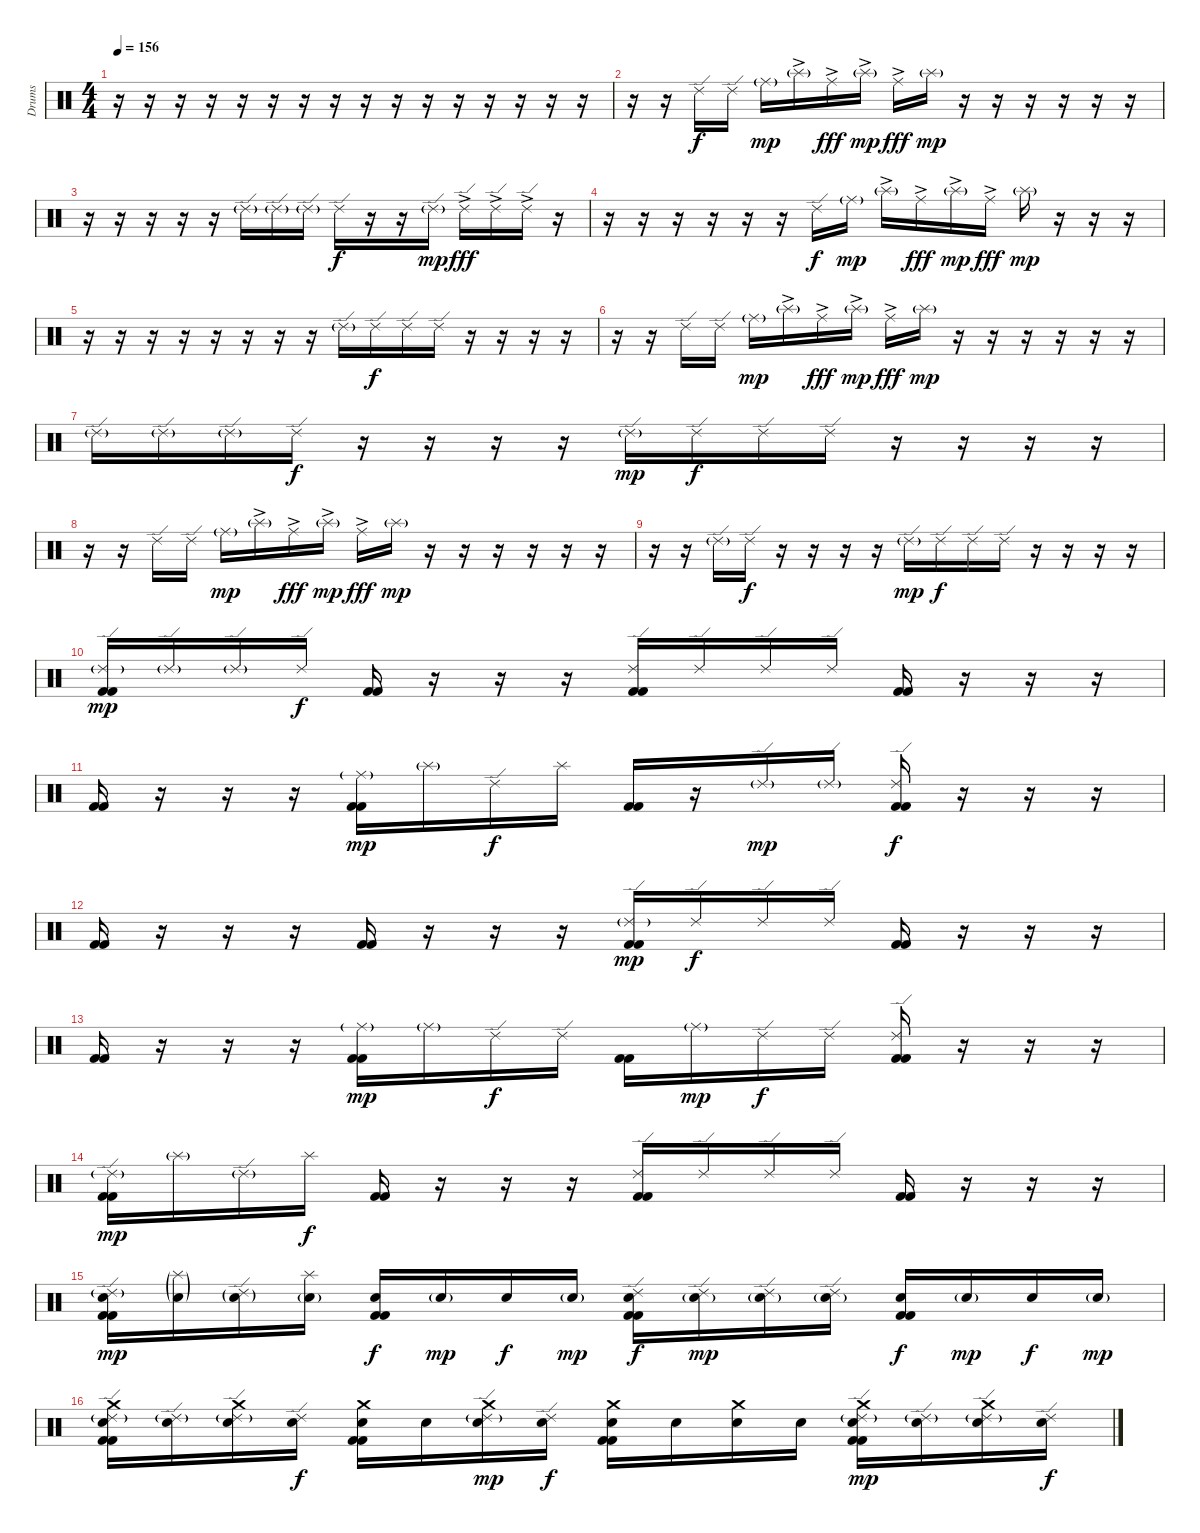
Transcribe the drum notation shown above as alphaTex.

\track ("Drums" "Drums") {instrument percussion}
\staff {score}
\articulation defaults
\ts (4 4)
\tempo 156
\clef neutral
\ks c
r.16{dy f} r.16 r.16 r.16 r.16 r.16 r.16 r.16 r.16 r.16 r.16 r.16 r.16 r.16 r.16 r.16 |
r.16 r.16 "Ride (edge) 2".16 "Ride (edge) 2".16 "Ride (middle)"{g}.16{dy mp} "Splash (hit)"{g ac}.16 "Ride (middle)"{ac}.16{dy fff} "Splash (hit)"{g ac}.16{dy mp} "Ride (middle)"{ac}.16{dy fff} "Splash (hit)"{g}.16{dy mp} r.16 r.16 r.16 r.16 r.16 r.16 |
r.16 r.16 r.16 r.16 r.16 "Ride (edge) 2"{g}.16 "Ride (edge) 2"{g}.16 "Ride (edge) 2"{g}.16 "Ride (edge) 2".16{dy f} r.16 r.16 "Ride (edge) 2"{g}.16{dy mp} "Ride (edge) 2"{ac}.16{dy fff} "Ride (edge) 2"{ac}.16 "Ride (edge) 2"{ac}.16 r.16 |
r.16 r.16 r.16 r.16 r.16 r.16 "Ride (edge) 2".16{dy f} "Ride (middle)"{g}.16{dy mp} "Splash (hit)"{g ac}.16 "Ride (middle)"{ac}.16{dy fff} "Splash (hit)"{g ac}.16{dy mp} "Ride (middle)"{ac}.16{dy fff} "Splash (hit)"{g}.16{dy mp} r.16 r.16 r.16 |
r.16 r.16 r.16 r.16 r.16 r.16 r.16 r.16 "Ride (edge) 2"{g}.16 "Ride (edge) 2".16{dy f} "Ride (edge) 2".16 "Ride (edge) 2".16 r.16 r.16 r.16 r.16 |
r.16 r.16 "Ride (edge) 2".16 "Ride (edge) 2".16 "Ride (middle)"{g}.16{dy mp} "Splash (hit)"{g ac}.16 "Ride (middle)"{ac}.16{dy fff} "Splash (hit)"{g ac}.16{dy mp} "Ride (middle)"{ac}.16{dy fff} "Splash (hit)"{g}.16{dy mp} r.16 r.16 r.16 r.16 r.16 r.16 |
"Ride (edge) 2"{g}.16 "Ride (edge) 2"{g}.16 "Ride (edge) 2"{g}.16 "Ride (edge) 2".16{dy f} r.16 r.16 r.16 r.16 "Ride (edge) 2"{g}.16{dy mp} "Ride (edge) 2".16{dy f} "Ride (edge) 2".16 "Ride (edge) 2".16 r.16 r.16 r.16 r.16 |
r.16 r.16 "Ride (edge) 2".16 "Ride (edge) 2".16 "Ride (middle)"{g}.16{dy mp} "Splash (hit)"{g ac}.16 "Ride (middle)"{ac}.16{dy fff} "Splash (hit)"{g ac}.16{dy mp} "Ride (middle)"{ac}.16{dy fff} "Splash (hit)"{g}.16{dy mp} r.16 r.16 r.16 r.16 r.16 r.16 |
r.16 r.16 "Ride (edge) 2"{g}.16 "Ride (edge) 2".16{dy f} r.16 r.16 r.16 r.16 "Ride (edge) 2"{g}.16{dy mp} "Ride (edge) 2".16{dy f} "Ride (edge) 2".16 "Ride (edge) 2".16 r.16 r.16 r.16 r.16 |
("Ride (edge) 2"{g} "Kick (hit) 2" "Kick (hit) 2").16{dy mp} "Ride (edge) 2"{g}.16 "Ride (edge) 2"{g}.16 "Ride (edge) 2".16{dy f} ("Kick (hit) 2" "Kick (hit) 2").16 r.16 r.16 r.16 ("Ride (edge) 2" "Kick (hit) 2" "Kick (hit) 2").16 "Ride (edge) 2".16 "Ride (edge) 2".16 "Ride (edge) 2".16 ("Kick (hit) 2" "Kick (hit) 2").16 r.16 r.16 r.16 |
("Kick (hit) 2" "Kick (hit) 2").16 r.16 r.16 r.16 ("Ride (middle)"{g} "Kick (hit) 2" "Kick (hit) 2").16{dy mp} "Splash (hit)"{g}.16 "Ride (edge) 2".16{dy f} "Splash (hit)".16 ("Kick (hit) 2" "Kick (hit) 2").16 r.16 "Ride (edge) 2"{g}.16{dy mp} "Ride (edge) 2"{g}.16 ("Ride (edge) 2" "Kick (hit) 2" "Kick (hit) 2").16{dy f} r.16 r.16 r.16 |
("Kick (hit) 2" "Kick (hit) 2").16 r.16 r.16 r.16 ("Kick (hit) 2" "Kick (hit) 2").16 r.16 r.16 r.16 ("Ride (edge) 2"{g} "Kick (hit) 2" "Kick (hit) 2").16{dy mp} "Ride (edge) 2".16{dy f} "Ride (edge) 2".16 "Ride (edge) 2".16 ("Kick (hit) 2" "Kick (hit) 2").16 r.16 r.16 r.16 |
("Kick (hit) 2" "Kick (hit) 2").16 r.16 r.16 r.16 ("Ride (middle)"{g} "Kick (hit) 2" "Kick (hit) 2").16{dy mp} "Ride (middle)"{g}.16 "Ride (edge) 2".16{dy f} "Ride (edge) 2".16 ("Kick (hit) 2" "Kick (hit) 2").16 "Ride (middle)"{g}.16{dy mp} "Ride (edge) 2".16{dy f} "Ride (edge) 2".16 ("Ride (edge) 2" "Kick (hit) 2" "Kick (hit) 2").16 r.16 r.16 r.16 |
("Ride (edge) 2"{g} "Kick (hit) 2" "Kick (hit) 2").16{dy mp} "Splash (hit)"{g}.16 "Ride (edge) 2"{g}.16 "Splash (hit)".16{dy f} ("Kick (hit) 2" "Kick (hit) 2").16 r.16 r.16 r.16 ("Ride (edge) 2" "Kick (hit) 2" "Kick (hit) 2").16 "Ride (edge) 2".16 "Ride (edge) 2".16 "Ride (edge) 2".16 ("Kick (hit) 2" "Kick (hit) 2").16 r.16 r.16 r.16 |
("Electric Snare (hit)" "Ride (edge) 2"{g} "Kick (hit) 2" "Kick (hit) 2").16{dy mp} ("Electric Snare (hit)"{g} "Splash (hit)"{g}).16 ("Electric Snare (hit)"{g} "Ride (edge) 2"{g}).16 ("Electric Snare (hit)"{g} "Splash (hit)").16 ("Electric Snare (hit)" "Kick (hit) 2" "Kick (hit) 2").16{dy f} "Electric Snare (hit)"{g}.16{dy mp} "Electric Snare (hit)".16{dy f} "Electric Snare (hit)"{g}.16{dy mp} ("Electric Snare (hit)" "Ride (edge) 2" "Kick (hit) 2" "Kick (hit) 2").16{dy f} ("Electric Snare (hit)"{g} "Ride (edge) 2").16{dy mp} ("Electric Snare (hit)"{g} "Ride (edge) 2").16 ("Electric Snare (hit)"{g} "Ride (edge) 2").16 ("Electric Snare (hit)" "Kick (hit) 2" "Kick (hit) 2").16{dy f} "Electric Snare (hit)"{g}.16{dy mp} "Electric Snare (hit)".16{dy f} "Electric Snare (hit)"{g}.16{dy mp} |
("Crash medium (hit)" "Ride (edge) 2"{g} "Electric Snare (hit)" "Kick (hit) 2" "Kick (hit) 2").16 ("Ride (edge) 2"{g} "Electric Snare (hit)").16 ("Crash medium (hit)" "Ride (edge) 2"{g} "Electric Snare (hit)").16 ("Ride (edge) 2" "Electric Snare (hit)").16{dy f} ("Crash medium (hit)" "Electric Snare (hit)" "Kick (hit) 2" "Kick (hit) 2").16 "Electric Snare (hit)".16 ("Crash medium (hit)" "Ride (edge) 2"{g} "Electric Snare (hit)").16{dy mp} ("Ride (edge) 2" "Electric Snare (hit)").16{dy f} ("Crash medium (hit)" "Electric Snare (hit)" "Kick (hit) 2" "Kick (hit) 2").16 "Electric Snare (hit)".16 ("Crash medium (hit)" "Electric Snare (hit)").16 "Electric Snare (hit)".16 ("Crash medium (hit)" "Ride (edge) 2"{g} "Electric Snare (hit)" "Kick (hit) 2" "Kick (hit) 2").16{dy mp} ("Ride (edge) 2"{g} "Electric Snare (hit)").16 ("Crash medium (hit)" "Ride (edge) 2"{g} "Electric Snare (hit)").16 ("Ride (edge) 2" "Electric Snare (hit)").16{dy f}
